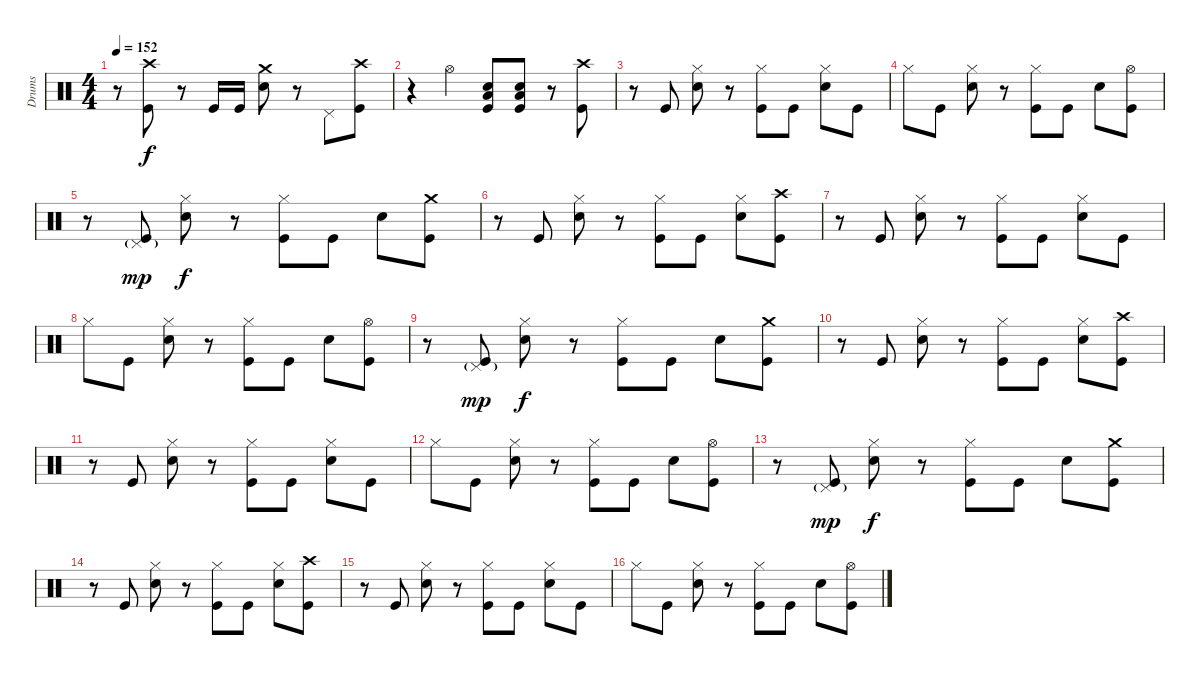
\track ("Drums" "Drums") {instrument percussion}
\staff {score}
\articulation defaults
\ts (4 4)
\tempo 152
\clef neutral
\ks c
r.8{dy f} ("Crash high (hit)" "Kick (hit)").8 r.8 "Kick (hit)".16 "Kick (hit)".16 ("Crash medium (hit)" "Electric Snare (hit)").8 r.8 "Pedal Hi-Hat (hit)".8 ("Crash high (hit)" "Kick (hit)").8 |
r.4 "Hi-Hat (open)".4 ("Snare (hit) 2" "Low Floor Tom (hit)" "Kick (hit)").8 ("Snare (hit) 2" "Low Floor Tom (hit)" "Kick (hit)").8 r.8 ("Crash high (hit)" "Kick (hit)").8 |
r.8 "Kick (hit)".8 ("Hi-Hat (closed)" "Electric Snare (hit)").8 r.8 ("Hi-Hat (closed)" "Kick (hit)").8 "Kick (hit)".8 ("Hi-Hat (closed)" "Electric Snare (hit)").8 "Kick (hit)".8 |
"Hi-Hat (closed)".8 "Kick (hit)".8 ("Hi-Hat (closed)" "Electric Snare (hit)").8 r.8 ("Hi-Hat (closed)" "Kick (hit)").8 "Kick (hit)".8 "Electric Snare (hit)".8 ("Hi-Hat (open)" "Kick (hit)").8 |
r.8 ("Pedal Hi-Hat (hit)"{g} "Kick (hit)").8{dy mp} ("Hi-Hat (closed)" "Electric Snare (hit)").8{dy f} r.8 ("Hi-Hat (closed)" "Kick (hit)").8 "Kick (hit)".8 "Electric Snare (hit)".8 ("Crash medium (hit)" "Kick (hit)").8 |
r.8 "Kick (hit)".8 ("Hi-Hat (closed)" "Electric Snare (hit)").8 r.8 ("Hi-Hat (closed)" "Kick (hit)").8 "Kick (hit)".8 ("Hi-Hat (closed)" "Electric Snare (hit)").8 ("Crash high (hit)" "Kick (hit)").8 |
r.8 "Kick (hit)".8 ("Hi-Hat (closed)" "Electric Snare (hit)").8 r.8 ("Hi-Hat (closed)" "Kick (hit)").8 "Kick (hit)".8 ("Hi-Hat (closed)" "Electric Snare (hit)").8 "Kick (hit)".8 |
"Hi-Hat (closed)".8 "Kick (hit)".8 ("Hi-Hat (closed)" "Electric Snare (hit)").8 r.8 ("Hi-Hat (closed)" "Kick (hit)").8 "Kick (hit)".8 "Electric Snare (hit)".8 ("Hi-Hat (open)" "Kick (hit)").8 |
r.8 ("Pedal Hi-Hat (hit)"{g} "Kick (hit)").8{dy mp} ("Hi-Hat (closed)" "Electric Snare (hit)").8{dy f} r.8 ("Hi-Hat (closed)" "Kick (hit)").8 "Kick (hit)".8 "Electric Snare (hit)".8 ("Crash medium (hit)" "Kick (hit)").8 |
r.8 "Kick (hit)".8 ("Hi-Hat (closed)" "Electric Snare (hit)").8 r.8 ("Hi-Hat (closed)" "Kick (hit)").8 "Kick (hit)".8 ("Hi-Hat (closed)" "Electric Snare (hit)").8 ("Crash high (hit)" "Kick (hit)").8 |
r.8 "Kick (hit)".8 ("Hi-Hat (closed)" "Electric Snare (hit)").8 r.8 ("Hi-Hat (closed)" "Kick (hit)").8 "Kick (hit)".8 ("Hi-Hat (closed)" "Electric Snare (hit)").8 "Kick (hit)".8 |
"Hi-Hat (closed)".8 "Kick (hit)".8 ("Hi-Hat (closed)" "Electric Snare (hit)").8 r.8 ("Hi-Hat (closed)" "Kick (hit)").8 "Kick (hit)".8 "Electric Snare (hit)".8 ("Hi-Hat (open)" "Kick (hit)").8 |
r.8 ("Pedal Hi-Hat (hit)"{g} "Kick (hit)").8{dy mp} ("Hi-Hat (closed)" "Electric Snare (hit)").8{dy f} r.8 ("Hi-Hat (closed)" "Kick (hit)").8 "Kick (hit)".8 "Electric Snare (hit)".8 ("Crash medium (hit)" "Kick (hit)").8 |
r.8 "Kick (hit)".8 ("Hi-Hat (closed)" "Electric Snare (hit)").8 r.8 ("Hi-Hat (closed)" "Kick (hit)").8 "Kick (hit)".8 ("Hi-Hat (closed)" "Electric Snare (hit)").8 ("Crash high (hit)" "Kick (hit)").8 |
r.8 "Kick (hit)".8 ("Hi-Hat (closed)" "Electric Snare (hit)").8 r.8 ("Hi-Hat (closed)" "Kick (hit)").8 "Kick (hit)".8 ("Hi-Hat (closed)" "Electric Snare (hit)").8 "Kick (hit)".8 |
"Hi-Hat (closed)".8 "Kick (hit)".8 ("Hi-Hat (closed)" "Electric Snare (hit)").8 r.8 ("Hi-Hat (closed)" "Kick (hit)").8 "Kick (hit)".8 "Electric Snare (hit)".8 ("Hi-Hat (open)" "Kick (hit)").8
